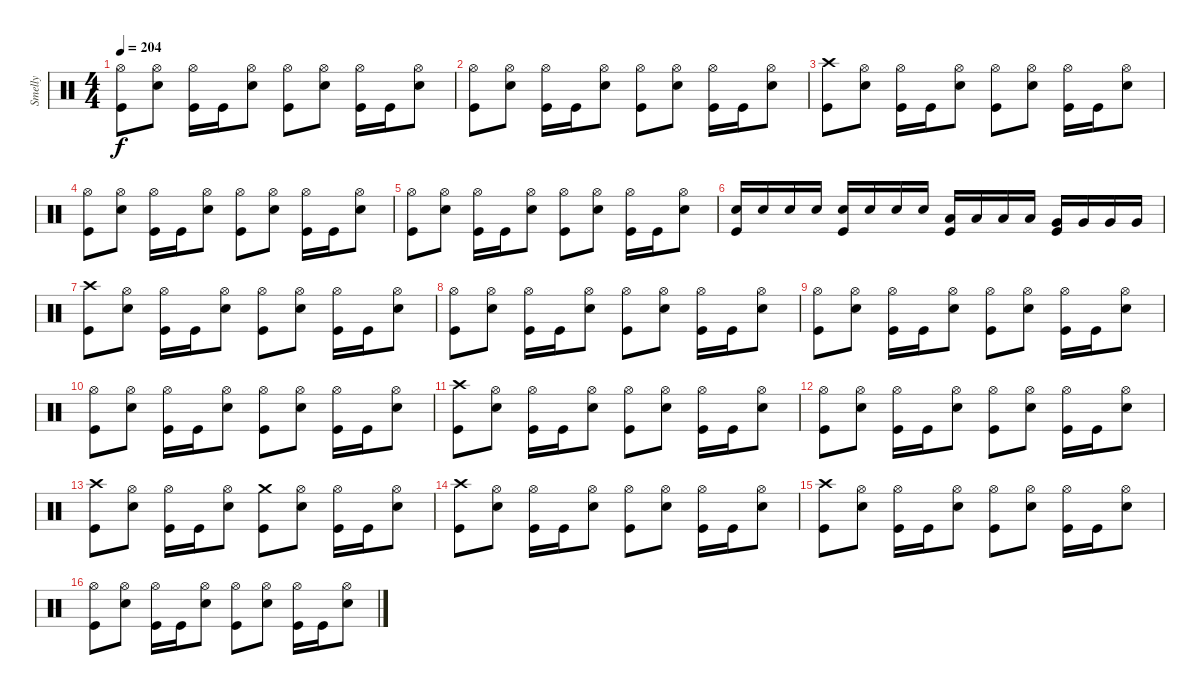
\track ("Smelly" "Smelly") {instrument percussion}
\staff {score}
\articulation defaults
\ts (4 4)
\tempo 204
\clef neutral
\ks c
("Hi-Hat (open)" "Kick (hit)").8{dy f} ("Hi-Hat (open)" "Snare (hit) 2").8 ("Hi-Hat (open)" "Kick (hit)").16 "Kick (hit)".16 ("Hi-Hat (open)" "Snare (hit) 2").8 ("Hi-Hat (open)" "Kick (hit)").8 ("Hi-Hat (open)" "Snare (hit) 2").8 ("Hi-Hat (open)" "Kick (hit)").16 "Kick (hit)".16 ("Hi-Hat (open)" "Snare (hit) 2").8 |
("Hi-Hat (open)" "Kick (hit)").8 ("Hi-Hat (open)" "Snare (hit) 2").8 ("Hi-Hat (open)" "Kick (hit)").16 "Kick (hit)".16 ("Hi-Hat (open)" "Snare (hit) 2").8 ("Hi-Hat (open)" "Kick (hit)").8 ("Hi-Hat (open)" "Snare (hit) 2").8 ("Hi-Hat (open)" "Kick (hit)").16 "Kick (hit)".16 ("Hi-Hat (open)" "Snare (hit) 2").8 |
("Crash high (hit)" "Kick (hit)").8 ("Hi-Hat (open)" "Snare (hit) 2").8 ("Hi-Hat (open)" "Kick (hit)").16 "Kick (hit)".16 ("Hi-Hat (open)" "Snare (hit) 2").8 ("Hi-Hat (open)" "Kick (hit)").8 ("Hi-Hat (open)" "Snare (hit) 2").8 ("Hi-Hat (open)" "Kick (hit)").16 "Kick (hit)".16 ("Hi-Hat (open)" "Snare (hit) 2").8 |
("Hi-Hat (open)" "Kick (hit)").8 ("Hi-Hat (open)" "Snare (hit) 2").8 ("Hi-Hat (open)" "Kick (hit)").16 "Kick (hit)".16 ("Hi-Hat (open)" "Snare (hit) 2").8 ("Hi-Hat (open)" "Kick (hit)").8 ("Hi-Hat (open)" "Snare (hit) 2").8 ("Hi-Hat (open)" "Kick (hit)").16 "Kick (hit)".16 ("Hi-Hat (open)" "Snare (hit) 2").8 |
("Hi-Hat (open)" "Kick (hit)").8 ("Hi-Hat (open)" "Snare (hit) 2").8 ("Hi-Hat (open)" "Kick (hit)").16 "Kick (hit)".16 ("Hi-Hat (open)" "Snare (hit) 2").8 ("Hi-Hat (open)" "Kick (hit)").8 ("Hi-Hat (open)" "Snare (hit) 2").8 ("Hi-Hat (open)" "Kick (hit)").16 "Kick (hit)".16 ("Hi-Hat (open)" "Snare (hit) 2").8 |
("Snare (hit) 2" "Kick (hit)").16 "Snare (hit) 2".16 "Snare (hit) 2".16 "Snare (hit) 2".16 ("Snare (hit) 2" "Kick (hit)").16 "Snare (hit) 2".16 "Snare (hit) 2".16 "Snare (hit) 2".16 ("Low Tom (hit)" "Kick (hit)").16 "Low Tom (hit)".16 "Low Tom (hit)".16 "Low Tom (hit)".16 ("Very Low Tom (hit)" "Kick (hit)").16 "Very Low Tom (hit)".16 "Very Low Tom (hit)".16 "Very Low Tom (hit)".16 |
("Crash high (hit)" "Kick (hit)").8 ("Hi-Hat (open)" "Snare (hit) 2").8 ("Hi-Hat (open)" "Kick (hit)").16 "Kick (hit)".16 ("Hi-Hat (open)" "Snare (hit) 2").8 ("Hi-Hat (open)" "Kick (hit)").8 ("Hi-Hat (open)" "Snare (hit) 2").8 ("Hi-Hat (open)" "Kick (hit)").16 "Kick (hit)".16 ("Hi-Hat (open)" "Snare (hit) 2").8 |
("Hi-Hat (open)" "Kick (hit)").8 ("Hi-Hat (open)" "Snare (hit) 2").8 ("Hi-Hat (open)" "Kick (hit)").16 "Kick (hit)".16 ("Hi-Hat (open)" "Snare (hit) 2").8 ("Hi-Hat (open)" "Kick (hit)").8 ("Hi-Hat (open)" "Snare (hit) 2").8 ("Hi-Hat (open)" "Kick (hit)").16 "Kick (hit)".16 ("Hi-Hat (open)" "Snare (hit) 2").8 |
("Hi-Hat (open)" "Kick (hit)").8 ("Hi-Hat (open)" "Snare (hit) 2").8 ("Hi-Hat (open)" "Kick (hit)").16 "Kick (hit)".16 ("Hi-Hat (open)" "Snare (hit) 2").8 ("Hi-Hat (open)" "Kick (hit)").8 ("Hi-Hat (open)" "Snare (hit) 2").8 ("Hi-Hat (open)" "Kick (hit)").16 "Kick (hit)".16 ("Hi-Hat (open)" "Snare (hit) 2").8 |
("Hi-Hat (open)" "Kick (hit)").8 ("Hi-Hat (open)" "Snare (hit) 2").8 ("Hi-Hat (open)" "Kick (hit)").16 "Kick (hit)".16 ("Hi-Hat (open)" "Snare (hit) 2").8 ("Hi-Hat (open)" "Kick (hit)").8 ("Hi-Hat (open)" "Snare (hit) 2").8 ("Hi-Hat (open)" "Kick (hit)").16 "Kick (hit)".16 ("Hi-Hat (open)" "Snare (hit) 2").8 |
("Crash high (hit)" "Kick (hit)").8 ("Hi-Hat (open)" "Snare (hit) 2").8 ("Hi-Hat (open)" "Kick (hit)").16 "Kick (hit)".16 ("Hi-Hat (open)" "Snare (hit) 2").8 ("Hi-Hat (open)" "Kick (hit)").8 ("Hi-Hat (open)" "Snare (hit) 2").8 ("Hi-Hat (open)" "Kick (hit)").16 "Kick (hit)".16 ("Hi-Hat (open)" "Snare (hit) 2").8 |
("Hi-Hat (open)" "Kick (hit)").8 ("Hi-Hat (open)" "Snare (hit) 2").8 ("Hi-Hat (open)" "Kick (hit)").16 "Kick (hit)".16 ("Hi-Hat (open)" "Snare (hit) 2").8 ("Hi-Hat (open)" "Kick (hit)").8 ("Hi-Hat (open)" "Snare (hit) 2").8 ("Hi-Hat (open)" "Kick (hit)").16 "Kick (hit)".16 ("Hi-Hat (open)" "Snare (hit) 2").8 |
("Crash high (hit)" "Kick (hit)").8 ("Hi-Hat (open)" "Snare (hit) 2").8 ("Hi-Hat (open)" "Kick (hit)").16 "Kick (hit)".16 ("Hi-Hat (open)" "Snare (hit) 2").8 ("Crash medium (hit)" "Kick (hit)").8 ("Hi-Hat (open)" "Snare (hit) 2").8 ("Hi-Hat (open)" "Kick (hit)").16 "Kick (hit)".16 ("Hi-Hat (open)" "Snare (hit) 2").8 |
("Crash high (hit)" "Kick (hit)").8 ("Hi-Hat (open)" "Snare (hit) 2").8 ("Hi-Hat (open)" "Kick (hit)").16 "Kick (hit)".16 ("Hi-Hat (open)" "Snare (hit) 2").8 ("Hi-Hat (open)" "Kick (hit)").8 ("Hi-Hat (open)" "Snare (hit) 2").8 ("Hi-Hat (open)" "Kick (hit)").16 "Kick (hit)".16 ("Hi-Hat (open)" "Snare (hit) 2").8 |
("Crash high (hit)" "Kick (hit)").8 ("Hi-Hat (open)" "Snare (hit) 2").8 ("Hi-Hat (open)" "Kick (hit)").16 "Kick (hit)".16 ("Hi-Hat (open)" "Snare (hit) 2").8 ("Hi-Hat (open)" "Kick (hit)").8 ("Hi-Hat (open)" "Snare (hit) 2").8 ("Hi-Hat (open)" "Kick (hit)").16 "Kick (hit)".16 ("Hi-Hat (open)" "Snare (hit) 2").8 |
("Hi-Hat (open)" "Kick (hit)").8 ("Hi-Hat (open)" "Snare (hit) 2").8 ("Hi-Hat (open)" "Kick (hit)").16 "Kick (hit)".16 ("Hi-Hat (open)" "Snare (hit) 2").8 ("Hi-Hat (open)" "Kick (hit)").8 ("Hi-Hat (open)" "Snare (hit) 2").8 ("Hi-Hat (open)" "Kick (hit)").16 "Kick (hit)".16 ("Hi-Hat (open)" "Snare (hit) 2").8
